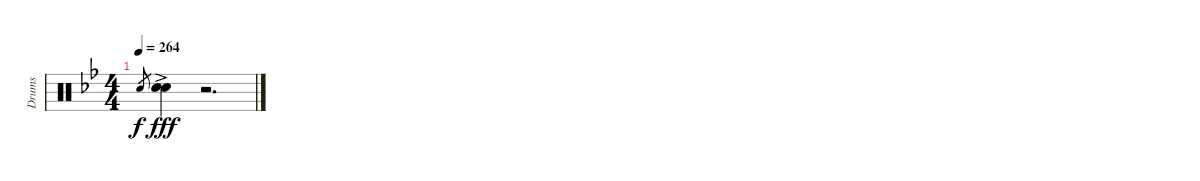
\track ("Drums" "Drums") {instrument percussion}
\staff {score}
\articulation defaults
\ts (4 4)
\tempo 264
\clef neutral
\ks gminor "Snare (hit) 2".8{gr dy f}
("Snare (hit) 2"{ac} "Snare (hit) 2"{ac}).4{dy fff} r.2{d}
